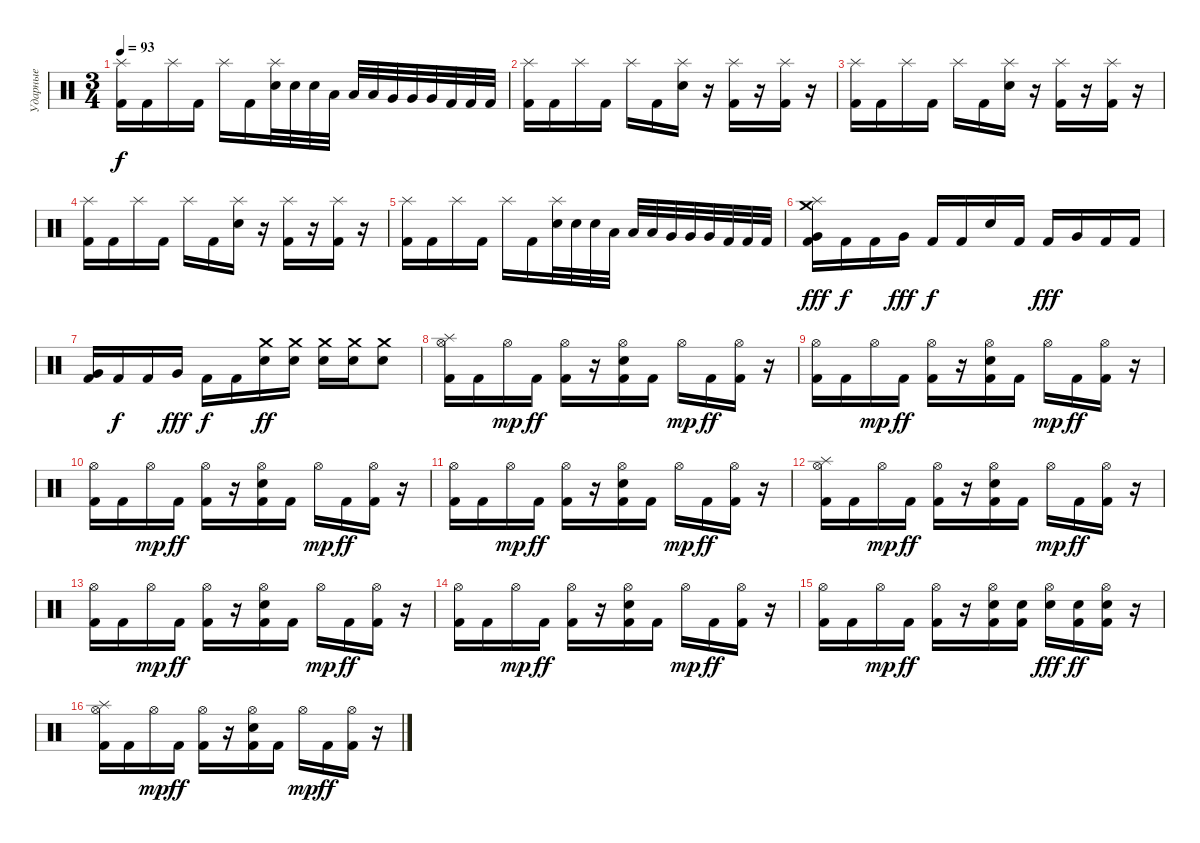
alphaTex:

\track ("Ударные" "Ударные") {instrument percussion}
\staff {score}
\articulation defaults
\ts (3 4)
\tempo 93
\clef neutral
\ks c
("Splash (hit)" "Kick (hit) 2").16{dy f} "Kick (hit) 2".16 "Splash (hit)".16 "Kick (hit) 2".16 "Splash (hit)".16 "Kick (hit) 2".16 ("Splash (hit)" "Electric Snare (hit)").32 "Electric Snare (hit)".32 "Electric Snare (hit)".32 "Low Tom (hit)".32 "Low Tom (hit)".32 "Low Tom (hit)".32 "Very Low Tom (hit)".32 "Very Low Tom (hit)".32 "Very Low Tom (hit)".32 "Kick (hit) 2".32 "Kick (hit) 2".32 "Kick (hit) 2".32 |
("Splash (hit)" "Kick (hit) 2").16 "Kick (hit) 2".16 "Splash (hit)".16 "Kick (hit) 2".16 "Splash (hit)".16 "Kick (hit) 2".16 ("Splash (hit)" "Electric Snare (hit)").16 r.16 ("Splash (hit)" "Kick (hit) 2").16 r.16 ("Splash (hit)" "Kick (hit) 2").16 r.16 |
("Splash (hit)" "Kick (hit) 2").16 "Kick (hit) 2".16 "Splash (hit)".16 "Kick (hit) 2".16 "Splash (hit)".16 "Kick (hit) 2".16 ("Splash (hit)" "Electric Snare (hit)").16 r.16 ("Splash (hit)" "Kick (hit) 2").16 r.16 ("Splash (hit)" "Kick (hit) 2").16 r.16 |
("Splash (hit)" "Kick (hit) 2").16 "Kick (hit) 2".16 "Splash (hit)".16 "Kick (hit) 2".16 "Splash (hit)".16 "Kick (hit) 2".16 ("Splash (hit)" "Electric Snare (hit)").16 r.16 ("Splash (hit)" "Kick (hit) 2").16 r.16 ("Splash (hit)" "Kick (hit) 2").16 r.16 |
("Splash (hit)" "Kick (hit) 2").16 "Kick (hit) 2".16 "Splash (hit)".16 "Kick (hit) 2".16 "Splash (hit)".16 "Kick (hit) 2".16 ("Splash (hit)" "Electric Snare (hit)").32 "Electric Snare (hit)".32 "Electric Snare (hit)".32 "Low Tom (hit)".32 "Low Tom (hit)".32 "Low Tom (hit)".32 "Very Low Tom (hit)".32 "Very Low Tom (hit)".32 "Very Low Tom (hit)".32 "Kick (hit) 2".32 "Kick (hit) 2".32 "Kick (hit) 2".32 |
("Splash (hit)" "Crash medium (hit)" "Very Low Tom (hit)" "Kick (hit) 2").16{dy fff} "Kick (hit) 2".16{dy f} "Kick (hit) 2".16 "Very Low Tom (hit)".16{dy fff} "Kick (hit) 2".16{dy f} "Kick (hit) 2".16 "Electric Snare (hit)".16 "Kick (hit) 2".16 "Kick (hit) 2".16{dy fff} "Very Low Tom (hit)".16 "Kick (hit) 2".16 "Kick (hit) 2".16 |
("Very Low Tom (hit)" "Kick (hit) 2").16 "Kick (hit) 2".16{dy f} "Kick (hit) 2".16 "Very Low Tom (hit)".16{dy fff} "Kick (hit) 2".16{dy f} "Kick (hit) 2".16 ("Crash medium (hit)" "Electric Snare (hit)").16{dy ff} ("Crash medium (hit)" "Electric Snare (hit)").16 ("Crash medium (hit)" "Electric Snare (hit)").16 ("Crash medium (hit)" "Electric Snare (hit)").16 ("Crash medium (hit)" "Electric Snare (hit)").8 |
("Hi-Hat (open)" "Splash (hit)" "Kick (hit) 2").16 "Kick (hit) 2".16 "Hi-Hat (open)".16{dy mp} "Kick (hit) 2".16{dy ff} ("Hi-Hat (open)" "Kick (hit) 2").16 r.16 ("Hi-Hat (open)" "Electric Snare (hit)" "Kick (hit) 2").16 "Kick (hit) 2".16 "Hi-Hat (open)".16{dy mp} "Kick (hit) 2".16{dy ff} ("Hi-Hat (open)" "Kick (hit) 2").16 r.16 |
("Hi-Hat (open)" "Kick (hit) 2").16 "Kick (hit) 2".16 "Hi-Hat (open)".16{dy mp} "Kick (hit) 2".16{dy ff} ("Hi-Hat (open)" "Kick (hit) 2").16 r.16 ("Hi-Hat (open)" "Electric Snare (hit)" "Kick (hit) 2").16 "Kick (hit) 2".16 "Hi-Hat (open)".16{dy mp} "Kick (hit) 2".16{dy ff} ("Hi-Hat (open)" "Kick (hit) 2").16 r.16 |
("Hi-Hat (open)" "Kick (hit) 2").16 "Kick (hit) 2".16 "Hi-Hat (open)".16{dy mp} "Kick (hit) 2".16{dy ff} ("Hi-Hat (open)" "Kick (hit) 2").16 r.16 ("Hi-Hat (open)" "Electric Snare (hit)" "Kick (hit) 2").16 "Kick (hit) 2".16 "Hi-Hat (open)".16{dy mp} "Kick (hit) 2".16{dy ff} ("Hi-Hat (open)" "Kick (hit) 2").16 r.16 |
("Hi-Hat (open)" "Kick (hit) 2").16 "Kick (hit) 2".16 "Hi-Hat (open)".16{dy mp} "Kick (hit) 2".16{dy ff} ("Hi-Hat (open)" "Kick (hit) 2").16 r.16 ("Hi-Hat (open)" "Electric Snare (hit)" "Kick (hit) 2").16 "Kick (hit) 2".16 "Hi-Hat (open)".16{dy mp} "Kick (hit) 2".16{dy ff} ("Hi-Hat (open)" "Kick (hit) 2").16 r.16 |
("Hi-Hat (open)" "Splash (hit)" "Kick (hit) 2").16 "Kick (hit) 2".16 "Hi-Hat (open)".16{dy mp} "Kick (hit) 2".16{dy ff} ("Hi-Hat (open)" "Kick (hit) 2").16 r.16 ("Hi-Hat (open)" "Electric Snare (hit)" "Kick (hit) 2").16 "Kick (hit) 2".16 "Hi-Hat (open)".16{dy mp} "Kick (hit) 2".16{dy ff} ("Hi-Hat (open)" "Kick (hit) 2").16 r.16 |
("Hi-Hat (open)" "Kick (hit) 2").16 "Kick (hit) 2".16 "Hi-Hat (open)".16{dy mp} "Kick (hit) 2".16{dy ff} ("Hi-Hat (open)" "Kick (hit) 2").16 r.16 ("Hi-Hat (open)" "Electric Snare (hit)" "Kick (hit) 2").16 "Kick (hit) 2".16 "Hi-Hat (open)".16{dy mp} "Kick (hit) 2".16{dy ff} ("Hi-Hat (open)" "Kick (hit) 2").16 r.16 |
("Hi-Hat (open)" "Kick (hit) 2").16 "Kick (hit) 2".16 "Hi-Hat (open)".16{dy mp} "Kick (hit) 2".16{dy ff} ("Hi-Hat (open)" "Kick (hit) 2").16 r.16 ("Hi-Hat (open)" "Electric Snare (hit)" "Kick (hit) 2").16 "Kick (hit) 2".16 "Hi-Hat (open)".16{dy mp} "Kick (hit) 2".16{dy ff} ("Hi-Hat (open)" "Kick (hit) 2").16 r.16 |
("Hi-Hat (open)" "Kick (hit) 2").16 "Kick (hit) 2".16 "Hi-Hat (open)".16{dy mp} "Kick (hit) 2".16{dy ff} ("Hi-Hat (open)" "Kick (hit) 2").16 r.16 ("Hi-Hat (open)" "Electric Snare (hit)" "Kick (hit) 2").16 ("Electric Snare (hit)" "Kick (hit) 2").16 ("Hi-Hat (open)" "Electric Snare (hit)").16{dy fff} ("Electric Snare (hit)" "Kick (hit) 2").16{dy ff} ("Hi-Hat (open)" "Electric Snare (hit)" "Kick (hit) 2").16 r.16 |
("Hi-Hat (open)" "Splash (hit)" "Kick (hit) 2").16 "Kick (hit) 2".16 "Hi-Hat (open)".16{dy mp} "Kick (hit) 2".16{dy ff} ("Hi-Hat (open)" "Kick (hit) 2").16 r.16 ("Hi-Hat (open)" "Electric Snare (hit)" "Kick (hit) 2").16 "Kick (hit) 2".16 "Hi-Hat (open)".16{dy mp} "Kick (hit) 2".16{dy ff} ("Hi-Hat (open)" "Kick (hit) 2").16 r.16
